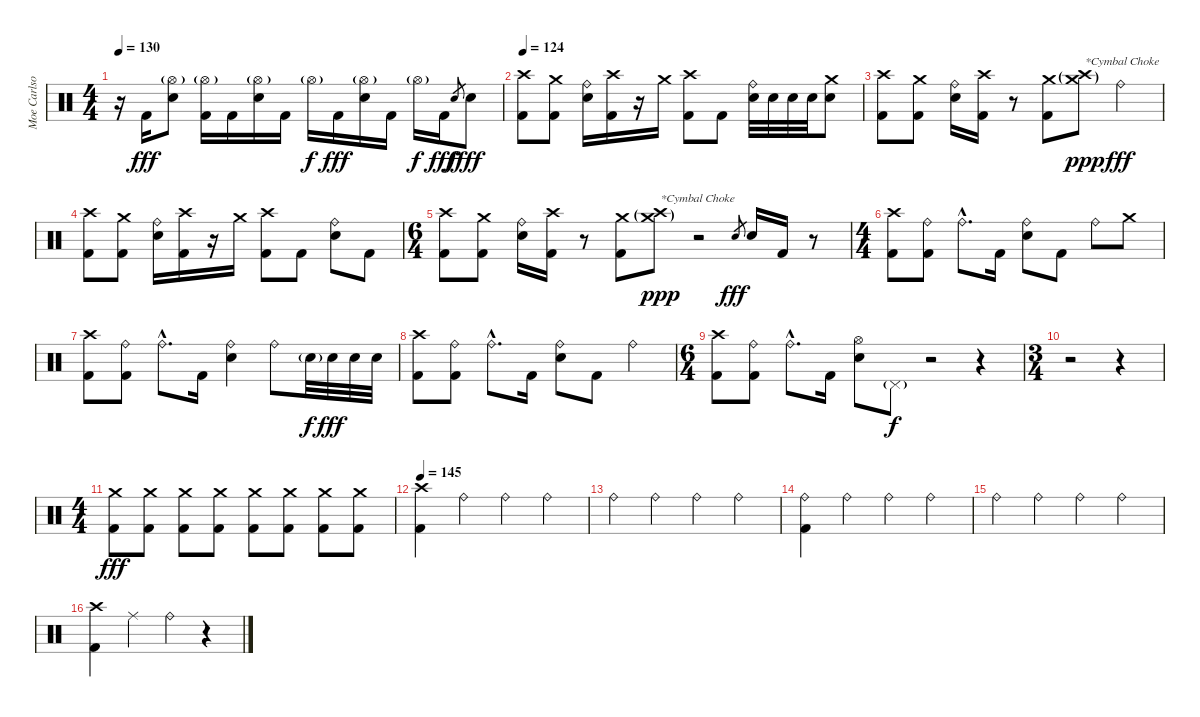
\track ("Moe Carlson" "Moe Carlso") {instrument percussion}
\staff {score}
\articulation defaults
\ts (4 4)
\tempo 130
\clef neutral
\ks c
r.16{dy fff} "Kick (hit) 2".16 ("Hi-Hat (open)"{g} "Electric Snare (hit)").8 ("Hi-Hat (open)"{g} "Kick (hit) 2").16 "Kick (hit) 2".16 ("Hi-Hat (open)"{g} "Electric Snare (hit)").16 "Kick (hit) 2".16 "Hi-Hat (open)"{g}.16{dy f} "Kick (hit) 2".16{dy fff} ("Hi-Hat (open)"{g} "Electric Snare (hit)").16 "Kick (hit) 2".16 "Hi-Hat (open)"{g}.16{dy f} "Kick (hit) 2".16{dy fff} "Electric Snare (hit)".8{gr dy f} "Electric Snare (hit)".8{dy fff} |
\tempo 124
("Crash high (hit)" "Kick (hit) 2").8 ("Crash medium (hit)" "Kick (hit) 2").8 ("Ride (bell)" "Electric Snare (hit)").16 ("Crash high (hit)" "Kick (hit) 2").16 r.16 "Crash medium (hit)".16 ("Crash high (hit)" "Kick (hit) 2").8 "Kick (hit) 2".8 ("Ride (bell)" "Electric Snare (hit)").32 "Electric Snare (hit)".32 "Electric Snare (hit)".32 "Electric Snare (hit)".32 ("Crash medium (hit)" "Electric Snare (hit)").8 |
("Crash high (hit)" "Kick (hit) 2").8 ("Crash medium (hit)" "Kick (hit) 2").8 ("Ride (bell)" "Electric Snare (hit)").16 ("Crash high (hit)" "Kick (hit) 2").16 r.8 ("Crash medium (hit)" "Kick (hit) 2").8 ("Crash medium (hit)"{g} "Crash high (hit)"{g}).8{txt "*Cymbal Choke" dy ppp} "Ride (bell)".4{dy fff} |
("Crash high (hit)" "Kick (hit) 2").8 ("Crash medium (hit)" "Kick (hit) 2").8 ("Ride (bell)" "Electric Snare (hit)").16 ("Crash high (hit)" "Kick (hit) 2").16 r.16 "Crash medium (hit)".16 ("Crash high (hit)" "Kick (hit) 2").8 "Kick (hit) 2".8 ("Ride (bell)" "Electric Snare (hit)").8 "Kick (hit) 2".8 |
\ts (6 4)
("Crash high (hit)" "Kick (hit) 2").8 ("Crash medium (hit)" "Kick (hit) 2").8 ("Ride (bell)" "Electric Snare (hit)").16 ("Crash high (hit)" "Kick (hit) 2").16 r.8 ("Crash medium (hit)" "Kick (hit) 2").8 ("Crash medium (hit)"{g} "Crash high (hit)"{g}).8{txt "*Cymbal Choke" dy ppp} r.2 "Electric Snare (hit)".8{gr dy fff} "Electric Snare (hit)".16 "Kick (hit) 2".16 r.8 |
\ts (4 4)
("Crash high (hit)" "Kick (hit) 2").8 ("Ride (bell)" "Kick (hit) 2").8 "Ride (bell)"{hac}.8{d} "Kick (hit) 2".16 ("Ride (bell)" "Electric Snare (hit)").8 "Kick (hit) 2".8 "Ride (bell)".8 "Crash medium (hit)".8 |
("Crash high (hit)" "Kick (hit) 2").8 ("Ride (bell)" "Kick (hit) 2").8 "Ride (bell)"{hac}.8{d} "Kick (hit) 2".16 ("Ride (bell)" "Electric Snare (hit)").4 "Ride (bell)".8 "Electric Snare (hit)"{g}.32{dy f} "Electric Snare (hit)".32{dy fff} "Electric Snare (hit)".32 "Electric Snare (hit)".32 |
("Crash high (hit)" "Kick (hit) 2").8 ("Ride (bell)" "Kick (hit) 2").8 "Ride (bell)"{hac}.8{d} "Kick (hit) 2".16 ("Ride (bell)" "Electric Snare (hit)").8 "Kick (hit) 2".8 "Ride (bell)".4 |
\ts (6 4)
("Crash high (hit)" "Kick (hit) 2").8 ("Ride (bell)" "Kick (hit) 2").8 "Ride (bell)"{hac}.8{d} "Kick (hit) 2".16 ("Hi-Hat (open)" "Electric Snare (hit)").8 "Pedal Hi-Hat (hit)"{g}.8{dy f} r.2 r.4 |
\ts (3 4)
r.2 r.4 |
\ts (4 4)
("Crash medium (hit)" "Kick (hit) 2").8{dy fff} ("Crash medium (hit)" "Kick (hit) 2").8 ("Crash medium (hit)" "Kick (hit) 2").8 ("Crash medium (hit)" "Kick (hit) 2").8 ("Crash medium (hit)" "Kick (hit) 2").8 ("Crash medium (hit)" "Kick (hit) 2").8 ("Crash medium (hit)" "Kick (hit) 2").8 ("Crash medium (hit)" "Kick (hit) 2").8 |
\tempo 145
("Crash high (hit)" "Kick (hit) 2").4 "Ride (bell)".4 "Ride (bell)".4 "Ride (bell)".4 |
"Ride (bell)".4 "Ride (bell)".4 "Ride (bell)".4 "Ride (bell)".4 |
("Ride (bell)" "Kick (hit) 2").4 "Ride (bell)".4 "Ride (bell)".4 "Ride (bell)".4 |
"Ride (bell)".4 "Ride (bell)".4 "Ride (bell)".4 "Ride (bell)".4 |
("Crash high (hit)" "Kick (hit) 2").4 "Ride (middle)".4 "Ride (bell)".4 r.4
